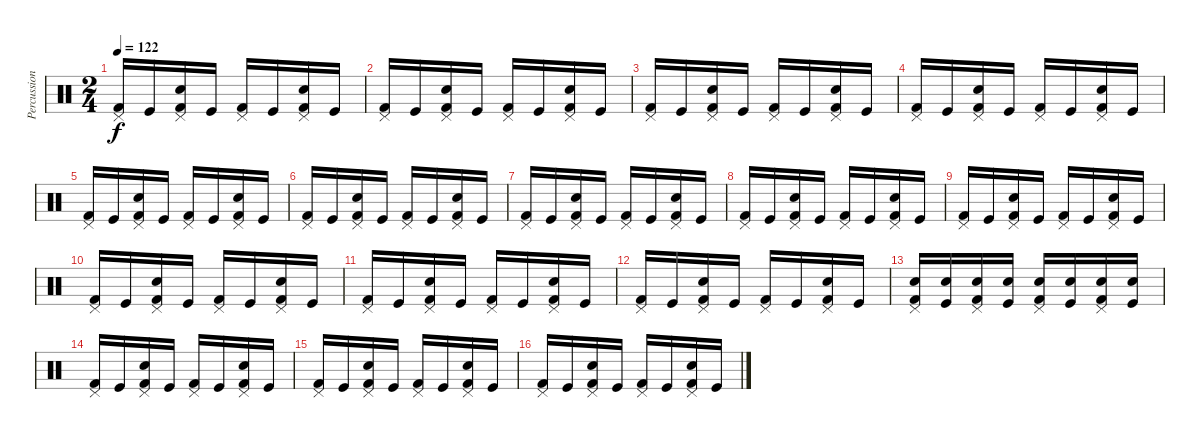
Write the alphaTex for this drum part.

\track ("Percussions" "Percussion") {instrument percussion}
\staff {score}
\articulation defaults
\ts (2 4)
\tempo 122
\clef neutral
\ks c
("Pedal Hi-Hat (hit)" "Kick (hit) 2").16{dy f} "Kick (hit)".16 ("Pedal Hi-Hat (hit)" "Snare (hit) 2" "Kick (hit) 2").16 "Kick (hit)".16 ("Pedal Hi-Hat (hit)" "Kick (hit) 2").16 "Kick (hit)".16 ("Pedal Hi-Hat (hit)" "Snare (hit) 2" "Kick (hit) 2").16 "Kick (hit)".16 |
("Pedal Hi-Hat (hit)" "Kick (hit) 2").16 "Kick (hit)".16 ("Pedal Hi-Hat (hit)" "Snare (hit) 2" "Kick (hit) 2").16 "Kick (hit)".16 ("Pedal Hi-Hat (hit)" "Kick (hit) 2").16 "Kick (hit)".16 ("Pedal Hi-Hat (hit)" "Snare (hit) 2" "Kick (hit) 2").16 "Kick (hit)".16 |
("Pedal Hi-Hat (hit)" "Kick (hit) 2").16 "Kick (hit)".16 ("Pedal Hi-Hat (hit)" "Snare (hit) 2" "Kick (hit) 2").16 "Kick (hit)".16 ("Pedal Hi-Hat (hit)" "Kick (hit) 2").16 "Kick (hit)".16 ("Pedal Hi-Hat (hit)" "Snare (hit) 2" "Kick (hit) 2").16 "Kick (hit)".16 |
("Pedal Hi-Hat (hit)" "Kick (hit) 2").16 "Kick (hit)".16 ("Pedal Hi-Hat (hit)" "Snare (hit) 2" "Kick (hit) 2").16 "Kick (hit)".16 ("Pedal Hi-Hat (hit)" "Kick (hit) 2").16 "Kick (hit)".16 ("Pedal Hi-Hat (hit)" "Snare (hit) 2" "Kick (hit) 2").16 "Kick (hit)".16 |
("Pedal Hi-Hat (hit)" "Kick (hit) 2").16 "Kick (hit)".16 ("Pedal Hi-Hat (hit)" "Snare (hit) 2" "Kick (hit) 2").16 "Kick (hit)".16 ("Pedal Hi-Hat (hit)" "Kick (hit) 2").16 "Kick (hit)".16 ("Pedal Hi-Hat (hit)" "Snare (hit) 2" "Kick (hit) 2").16 "Kick (hit)".16 |
("Pedal Hi-Hat (hit)" "Kick (hit) 2").16 "Kick (hit)".16 ("Pedal Hi-Hat (hit)" "Snare (hit) 2" "Kick (hit) 2").16 "Kick (hit)".16 ("Pedal Hi-Hat (hit)" "Kick (hit) 2").16 "Kick (hit)".16 ("Pedal Hi-Hat (hit)" "Snare (hit) 2" "Kick (hit) 2").16 "Kick (hit)".16 |
("Pedal Hi-Hat (hit)" "Kick (hit) 2").16 "Kick (hit)".16 ("Pedal Hi-Hat (hit)" "Snare (hit) 2" "Kick (hit) 2").16 "Kick (hit)".16 ("Pedal Hi-Hat (hit)" "Kick (hit) 2").16 "Kick (hit)".16 ("Pedal Hi-Hat (hit)" "Snare (hit) 2" "Kick (hit) 2").16 "Kick (hit)".16 |
("Pedal Hi-Hat (hit)" "Kick (hit) 2").16 "Kick (hit)".16 ("Pedal Hi-Hat (hit)" "Snare (hit) 2" "Kick (hit) 2").16 "Kick (hit)".16 ("Pedal Hi-Hat (hit)" "Kick (hit) 2").16 "Kick (hit)".16 ("Pedal Hi-Hat (hit)" "Snare (hit) 2" "Kick (hit) 2").16 "Kick (hit)".16 |
("Pedal Hi-Hat (hit)" "Kick (hit) 2").16 "Kick (hit)".16 ("Pedal Hi-Hat (hit)" "Snare (hit) 2" "Kick (hit) 2").16 "Kick (hit)".16 ("Pedal Hi-Hat (hit)" "Kick (hit) 2").16 "Kick (hit)".16 ("Pedal Hi-Hat (hit)" "Snare (hit) 2" "Kick (hit) 2").16 "Kick (hit)".16 |
("Pedal Hi-Hat (hit)" "Kick (hit) 2").16 "Kick (hit)".16 ("Pedal Hi-Hat (hit)" "Snare (hit) 2" "Kick (hit) 2").16 "Kick (hit)".16 ("Pedal Hi-Hat (hit)" "Kick (hit) 2").16 "Kick (hit)".16 ("Pedal Hi-Hat (hit)" "Snare (hit) 2" "Kick (hit) 2").16 "Kick (hit)".16 |
("Pedal Hi-Hat (hit)" "Kick (hit) 2").16 "Kick (hit)".16 ("Pedal Hi-Hat (hit)" "Snare (hit) 2" "Kick (hit) 2").16 "Kick (hit)".16 ("Pedal Hi-Hat (hit)" "Kick (hit) 2").16 "Kick (hit)".16 ("Pedal Hi-Hat (hit)" "Snare (hit) 2" "Kick (hit) 2").16 "Kick (hit)".16 |
("Pedal Hi-Hat (hit)" "Kick (hit) 2").16 "Kick (hit)".16 ("Pedal Hi-Hat (hit)" "Snare (hit) 2" "Kick (hit) 2").16 "Kick (hit)".16 ("Pedal Hi-Hat (hit)" "Kick (hit) 2").16 "Kick (hit)".16 ("Pedal Hi-Hat (hit)" "Snare (hit) 2" "Kick (hit) 2").16 "Kick (hit)".16 |
("Pedal Hi-Hat (hit)" "Snare (hit) 2" "Kick (hit) 2").16 ("Snare (hit) 2" "Kick (hit)").16 ("Pedal Hi-Hat (hit)" "Snare (hit) 2" "Kick (hit) 2").16 ("Snare (hit) 2" "Kick (hit)").16 ("Pedal Hi-Hat (hit)" "Snare (hit) 2" "Kick (hit) 2").16 ("Snare (hit) 2" "Kick (hit)").16 ("Pedal Hi-Hat (hit)" "Snare (hit) 2" "Kick (hit) 2").16 ("Snare (hit) 2" "Kick (hit)").16 |
("Pedal Hi-Hat (hit)" "Kick (hit) 2").16 "Kick (hit)".16 ("Pedal Hi-Hat (hit)" "Snare (hit) 2" "Kick (hit) 2").16 "Kick (hit)".16 ("Pedal Hi-Hat (hit)" "Kick (hit) 2").16 "Kick (hit)".16 ("Pedal Hi-Hat (hit)" "Snare (hit) 2" "Kick (hit) 2").16 "Kick (hit)".16 |
("Pedal Hi-Hat (hit)" "Kick (hit) 2").16 "Kick (hit)".16 ("Pedal Hi-Hat (hit)" "Snare (hit) 2" "Kick (hit) 2").16 "Kick (hit)".16 ("Pedal Hi-Hat (hit)" "Kick (hit) 2").16 "Kick (hit)".16 ("Pedal Hi-Hat (hit)" "Snare (hit) 2" "Kick (hit) 2").16 "Kick (hit)".16 |
("Pedal Hi-Hat (hit)" "Kick (hit) 2").16 "Kick (hit)".16 ("Pedal Hi-Hat (hit)" "Snare (hit) 2" "Kick (hit) 2").16 "Kick (hit)".16 ("Pedal Hi-Hat (hit)" "Kick (hit) 2").16 "Kick (hit)".16 ("Pedal Hi-Hat (hit)" "Snare (hit) 2" "Kick (hit) 2").16 "Kick (hit)".16
